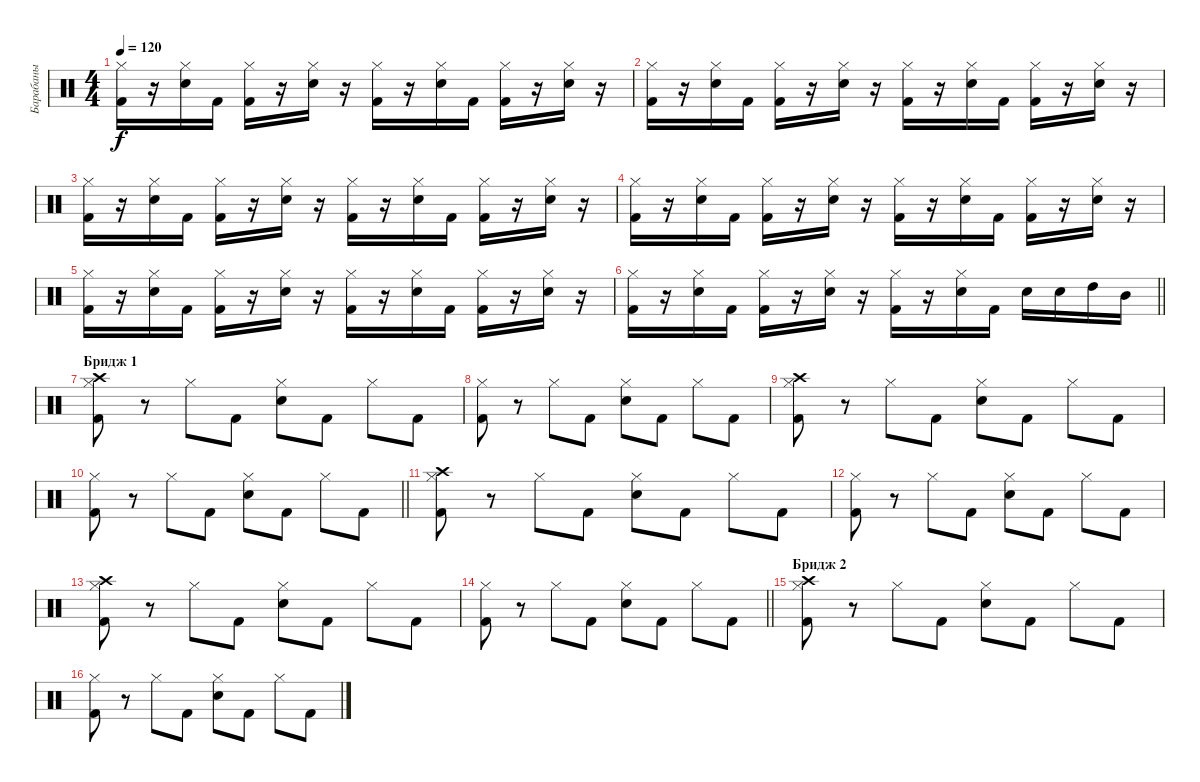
\track ("Барабаны" "Барабаны") {instrument percussion}
\staff {score}
\articulation defaults
\ts (4 4)
\tempo 120
\clef neutral
\ks c
("Hi-Hat (closed)" "Kick (hit) 2").16{dy f} r.16 ("Hi-Hat (closed)" "Electric Snare (hit)").16 "Kick (hit) 2".16 ("Hi-Hat (closed)" "Kick (hit) 2").16 r.16 ("Hi-Hat (closed)" "Electric Snare (hit)").16 r.16 ("Hi-Hat (closed)" "Kick (hit) 2").16 r.16 ("Hi-Hat (closed)" "Electric Snare (hit)").16 "Kick (hit) 2".16 ("Hi-Hat (closed)" "Kick (hit) 2").16 r.16 ("Hi-Hat (closed)" "Electric Snare (hit)").16 r.16 |
("Hi-Hat (closed)" "Kick (hit) 2").16 r.16 ("Hi-Hat (closed)" "Electric Snare (hit)").16 "Kick (hit) 2".16 ("Hi-Hat (closed)" "Kick (hit) 2").16 r.16 ("Hi-Hat (closed)" "Electric Snare (hit)").16 r.16 ("Hi-Hat (closed)" "Kick (hit) 2").16 r.16 ("Hi-Hat (closed)" "Electric Snare (hit)").16 "Kick (hit) 2".16 ("Hi-Hat (closed)" "Kick (hit) 2").16 r.16 ("Hi-Hat (closed)" "Electric Snare (hit)").16 r.16 |
("Hi-Hat (closed)" "Kick (hit) 2").16 r.16 ("Hi-Hat (closed)" "Electric Snare (hit)").16 "Kick (hit) 2".16 ("Hi-Hat (closed)" "Kick (hit) 2").16 r.16 ("Hi-Hat (closed)" "Electric Snare (hit)").16 r.16 ("Hi-Hat (closed)" "Kick (hit) 2").16 r.16 ("Hi-Hat (closed)" "Electric Snare (hit)").16 "Kick (hit) 2".16 ("Hi-Hat (closed)" "Kick (hit) 2").16 r.16 ("Hi-Hat (closed)" "Electric Snare (hit)").16 r.16 |
("Hi-Hat (closed)" "Kick (hit) 2").16 r.16 ("Hi-Hat (closed)" "Electric Snare (hit)").16 "Kick (hit) 2".16 ("Hi-Hat (closed)" "Kick (hit) 2").16 r.16 ("Hi-Hat (closed)" "Electric Snare (hit)").16 r.16 ("Hi-Hat (closed)" "Kick (hit) 2").16 r.16 ("Hi-Hat (closed)" "Electric Snare (hit)").16 "Kick (hit) 2".16 ("Hi-Hat (closed)" "Kick (hit) 2").16 r.16 ("Hi-Hat (closed)" "Electric Snare (hit)").16 r.16 |
("Hi-Hat (closed)" "Kick (hit) 2").16 r.16 ("Hi-Hat (closed)" "Electric Snare (hit)").16 "Kick (hit) 2".16 ("Hi-Hat (closed)" "Kick (hit) 2").16 r.16 ("Hi-Hat (closed)" "Electric Snare (hit)").16 r.16 ("Hi-Hat (closed)" "Kick (hit) 2").16 r.16 ("Hi-Hat (closed)" "Electric Snare (hit)").16 "Kick (hit) 2".16 ("Hi-Hat (closed)" "Kick (hit) 2").16 r.16 ("Hi-Hat (closed)" "Electric Snare (hit)").16 r.16 |
\barLineRight lightlight
("Hi-Hat (closed)" "Kick (hit) 2").16 r.16 ("Hi-Hat (closed)" "Electric Snare (hit)").16 "Kick (hit) 2".16 ("Hi-Hat (closed)" "Kick (hit) 2").16 r.16 ("Hi-Hat (closed)" "Electric Snare (hit)").16 r.16 ("Hi-Hat (closed)" "Kick (hit) 2").16 r.16 ("Hi-Hat (closed)" "Electric Snare (hit)").16 "Kick (hit) 2".16 "Electric Snare (hit)".16 "Electric Snare (hit)".16 "High Tom (hit)".16 "Mid Tom (hit)".16 |
\section ("" "Бридж 1")
("Hi-Hat (closed)" "Kick (hit) 2" "Crash high (hit)").8 r.8 "Hi-Hat (closed)".8 "Kick (hit) 2".8 ("Hi-Hat (closed)" "Electric Snare (hit)").8 "Kick (hit) 2".8 "Hi-Hat (closed)".8 "Kick (hit) 2".8 |
("Hi-Hat (closed)" "Kick (hit) 2").8 r.8 "Hi-Hat (closed)".8 "Kick (hit) 2".8 ("Hi-Hat (closed)" "Electric Snare (hit)").8 "Kick (hit) 2".8 "Hi-Hat (closed)".8 "Kick (hit) 2".8 |
("Hi-Hat (closed)" "Kick (hit) 2" "Crash high (hit)").8 r.8 "Hi-Hat (closed)".8 "Kick (hit) 2".8 ("Hi-Hat (closed)" "Electric Snare (hit)").8 "Kick (hit) 2".8 "Hi-Hat (closed)".8 "Kick (hit) 2".8 |
\barLineRight lightlight
("Hi-Hat (closed)" "Kick (hit) 2").8 r.8 "Hi-Hat (closed)".8 "Kick (hit) 2".8 ("Hi-Hat (closed)" "Electric Snare (hit)").8 "Kick (hit) 2".8 "Hi-Hat (closed)".8 "Kick (hit) 2".8 |
("Hi-Hat (closed)" "Kick (hit) 2" "Crash high (hit)").8 r.8 "Hi-Hat (closed)".8 "Kick (hit) 2".8 ("Hi-Hat (closed)" "Electric Snare (hit)").8 "Kick (hit) 2".8 "Hi-Hat (closed)".8 "Kick (hit) 2".8 |
("Hi-Hat (closed)" "Kick (hit) 2").8 r.8 "Hi-Hat (closed)".8 "Kick (hit) 2".8 ("Hi-Hat (closed)" "Electric Snare (hit)").8 "Kick (hit) 2".8 "Hi-Hat (closed)".8 "Kick (hit) 2".8 |
("Hi-Hat (closed)" "Kick (hit) 2" "Crash high (hit)").8 r.8 "Hi-Hat (closed)".8 "Kick (hit) 2".8 ("Hi-Hat (closed)" "Electric Snare (hit)").8 "Kick (hit) 2".8 "Hi-Hat (closed)".8 "Kick (hit) 2".8 |
\barLineRight lightlight
("Hi-Hat (closed)" "Kick (hit) 2").8 r.8 "Hi-Hat (closed)".8 "Kick (hit) 2".8 ("Hi-Hat (closed)" "Electric Snare (hit)").8 "Kick (hit) 2".8 "Hi-Hat (closed)".8 "Kick (hit) 2".8 |
\section ("" "Бридж 2")
("Hi-Hat (closed)" "Kick (hit) 2" "Crash high (hit)").8 r.8 "Hi-Hat (closed)".8 "Kick (hit) 2".8 ("Hi-Hat (closed)" "Electric Snare (hit)").8 "Kick (hit) 2".8 "Hi-Hat (closed)".8 "Kick (hit) 2".8 |
("Hi-Hat (closed)" "Kick (hit) 2").8 r.8 "Hi-Hat (closed)".8 "Kick (hit) 2".8 ("Hi-Hat (closed)" "Electric Snare (hit)").8 "Kick (hit) 2".8 "Hi-Hat (closed)".8 "Kick (hit) 2".8
